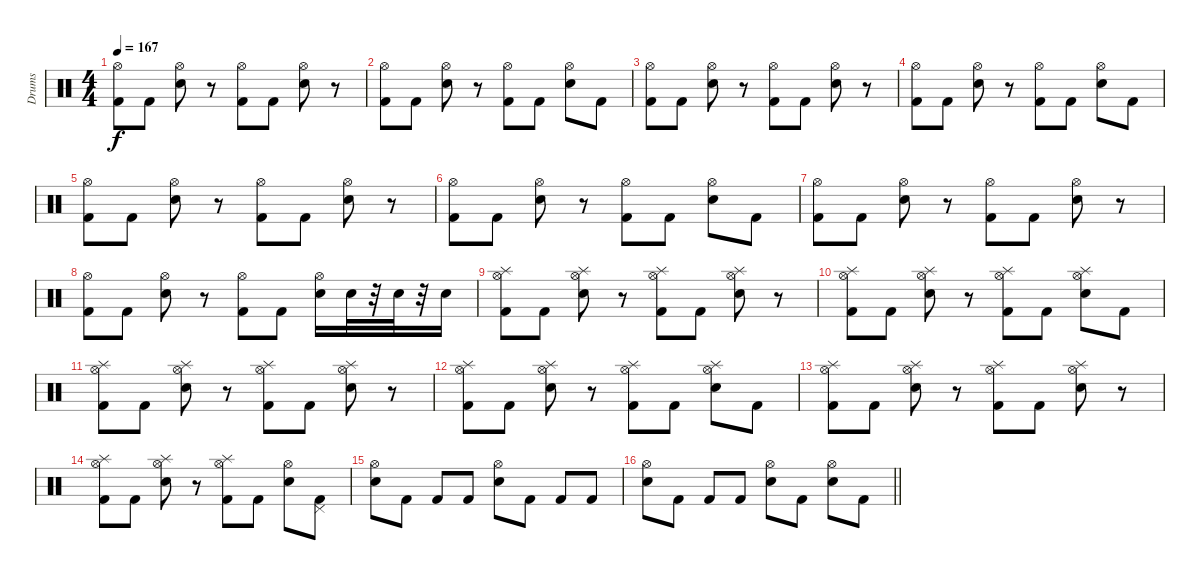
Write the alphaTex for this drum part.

\track ("Drums" "Drums") {instrument percussion}
\staff {score}
\articulation defaults
\ts (4 4)
\tempo 167
\clef neutral
\ks c
("Hi-Hat (open)" "Kick (hit) 2").8{dy f} "Kick (hit) 2".8 ("Hi-Hat (open)" "Electric Snare (hit)").8 r.8 ("Hi-Hat (open)" "Kick (hit) 2").8 "Kick (hit) 2".8 ("Hi-Hat (open)" "Electric Snare (hit)").8 r.8 |
("Hi-Hat (open)" "Kick (hit) 2").8 "Kick (hit) 2".8 ("Hi-Hat (open)" "Electric Snare (hit)").8 r.8 ("Hi-Hat (open)" "Kick (hit) 2").8 "Kick (hit) 2".8 ("Hi-Hat (open)" "Electric Snare (hit)").8 "Kick (hit) 2".8 |
("Hi-Hat (open)" "Kick (hit) 2").8 "Kick (hit) 2".8 ("Hi-Hat (open)" "Electric Snare (hit)").8 r.8 ("Hi-Hat (open)" "Kick (hit) 2").8 "Kick (hit) 2".8 ("Hi-Hat (open)" "Electric Snare (hit)").8 r.8 |
("Hi-Hat (open)" "Kick (hit) 2").8 "Kick (hit) 2".8 ("Hi-Hat (open)" "Electric Snare (hit)").8 r.8 ("Hi-Hat (open)" "Kick (hit) 2").8 "Kick (hit) 2".8 ("Hi-Hat (open)" "Electric Snare (hit)").8 "Kick (hit) 2".8 |
("Hi-Hat (open)" "Kick (hit) 2").8 "Kick (hit) 2".8 ("Hi-Hat (open)" "Electric Snare (hit)").8 r.8 ("Hi-Hat (open)" "Kick (hit) 2").8 "Kick (hit) 2".8 ("Hi-Hat (open)" "Electric Snare (hit)").8 r.8 |
("Hi-Hat (open)" "Kick (hit) 2").8 "Kick (hit) 2".8 ("Hi-Hat (open)" "Electric Snare (hit)").8 r.8 ("Hi-Hat (open)" "Kick (hit) 2").8 "Kick (hit) 2".8 ("Hi-Hat (open)" "Electric Snare (hit)").8 "Kick (hit) 2".8 |
("Hi-Hat (open)" "Kick (hit) 2").8 "Kick (hit) 2".8 ("Hi-Hat (open)" "Electric Snare (hit)").8 r.8 ("Hi-Hat (open)" "Kick (hit) 2").8 "Kick (hit) 2".8 ("Hi-Hat (open)" "Electric Snare (hit)").8 r.8 |
("Hi-Hat (open)" "Kick (hit) 2").8 "Kick (hit) 2".8 ("Hi-Hat (open)" "Electric Snare (hit)").8 r.8 ("Hi-Hat (open)" "Kick (hit) 2").8 "Kick (hit) 2".8 ("Hi-Hat (open)" "Electric Snare (hit)").16 "Electric Snare (hit)".32 r.32 "Electric Snare (hit)".32 r.32 "Electric Snare (hit)".16 |
("Kick (hit) 2" "Splash (hit)" "Hi-Hat (open)").8 "Kick (hit) 2".8 ("Electric Snare (hit)" "Splash (hit)" "Hi-Hat (open)").8 r.8 ("Kick (hit) 2" "Splash (hit)" "Hi-Hat (open)").8 "Kick (hit) 2".8 ("Electric Snare (hit)" "Splash (hit)" "Hi-Hat (open)").8 r.8 |
("Hi-Hat (open)" "Kick (hit) 2" "Splash (hit)").8 "Kick (hit) 2".8 ("Hi-Hat (open)" "Electric Snare (hit)" "Splash (hit)").8 r.8 ("Hi-Hat (open)" "Kick (hit) 2" "Splash (hit)").8 "Kick (hit) 2".8 ("Hi-Hat (open)" "Electric Snare (hit)" "Splash (hit)").8 "Kick (hit) 2".8 |
("Kick (hit) 2" "Splash (hit)" "Hi-Hat (open)").8 "Kick (hit) 2".8 ("Electric Snare (hit)" "Splash (hit)" "Hi-Hat (open)").8 r.8 ("Kick (hit) 2" "Splash (hit)" "Hi-Hat (open)").8 "Kick (hit) 2".8 ("Electric Snare (hit)" "Splash (hit)" "Hi-Hat (open)").8 r.8 |
("Hi-Hat (open)" "Kick (hit) 2" "Splash (hit)").8 "Kick (hit) 2".8 ("Hi-Hat (open)" "Electric Snare (hit)" "Splash (hit)").8 r.8 ("Hi-Hat (open)" "Kick (hit) 2" "Splash (hit)").8 "Kick (hit) 2".8 ("Hi-Hat (open)" "Electric Snare (hit)" "Splash (hit)").8 "Kick (hit) 2".8 |
("Kick (hit) 2" "Splash (hit)" "Hi-Hat (open)").8 "Kick (hit) 2".8 ("Electric Snare (hit)" "Splash (hit)" "Hi-Hat (open)").8 r.8 ("Kick (hit) 2" "Splash (hit)" "Hi-Hat (open)").8 "Kick (hit) 2".8 ("Electric Snare (hit)" "Splash (hit)" "Hi-Hat (open)").8 r.8 |
("Hi-Hat (open)" "Kick (hit) 2" "Splash (hit)").8 "Kick (hit) 2".8 ("Hi-Hat (open)" "Electric Snare (hit)" "Splash (hit)").8 r.8 ("Hi-Hat (open)" "Kick (hit) 2" "Splash (hit)").8 "Kick (hit) 2".8 ("Electric Snare (hit)" "Hi-Hat (open)").8 ("Kick (hit) 2" "Pedal Hi-Hat (hit)").8 |
("Electric Snare (hit)" "Hi-Hat (open)").8 "Kick (hit) 2".8 "Kick (hit) 2".8 "Kick (hit) 2".8 ("Electric Snare (hit)" "Hi-Hat (open)").8 "Kick (hit) 2".8 "Kick (hit) 2".8 "Kick (hit) 2".8 |
\barLineRight lightlight
("Electric Snare (hit)" "Hi-Hat (open)").8 "Kick (hit) 2".8 "Kick (hit) 2".8 "Kick (hit) 2".8 ("Electric Snare (hit)" "Hi-Hat (open)").8 "Kick (hit) 2".8 ("Electric Snare (hit)" "Hi-Hat (open)").8 "Kick (hit) 2".8
